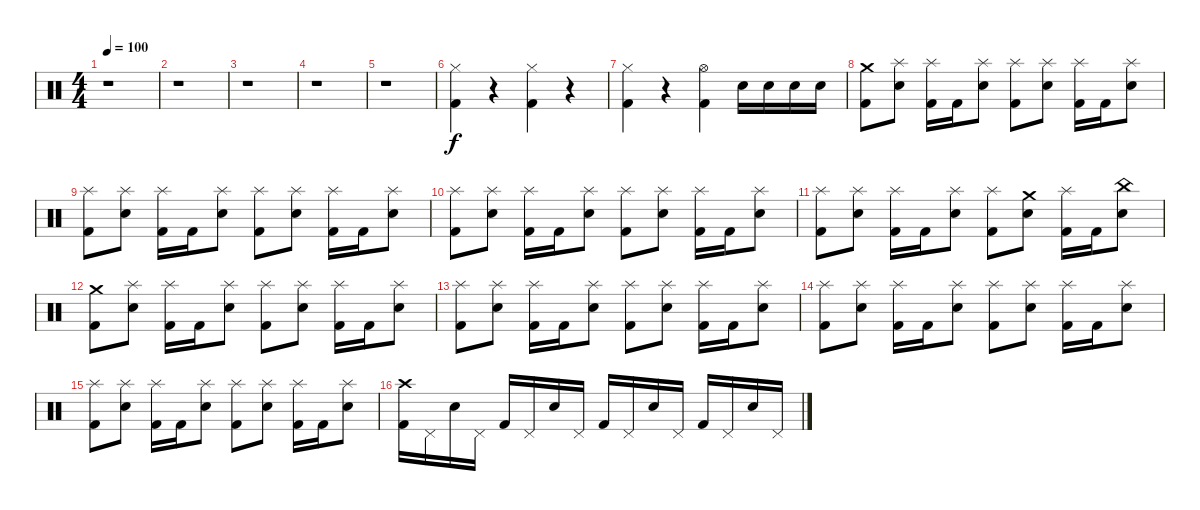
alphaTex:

\track "" {instrument percussion}
\staff {score}
\articulation defaults
\ts (4 4)
\tempo 100
\clef neutral
\ks c
r.1{dy f} |
r.1 |
r.1 |
r.1 |
r.1 |
("Hi-Hat (closed)" "Kick (hit) 2").4 r.4 ("Hi-Hat (closed)" "Kick (hit) 2").4 r.4 |
("Hi-Hat (closed)" "Kick (hit) 2").4 r.4 ("Hi-Hat (open)" "Kick (hit) 2").4 "Snare (hit) 2".16 "Snare (hit) 2".16 "Snare (hit) 2".16 "Snare (hit) 2".16 |
("Crash medium (hit)" "Kick (hit) 2").8 ("Splash (hit)" "Snare (hit) 2").8 ("Splash (hit)" "Kick (hit) 2").16 "Kick (hit) 2".16 ("Splash (hit)" "Snare (hit) 2").8 ("Splash (hit)" "Kick (hit) 2").8 ("Splash (hit)" "Snare (hit) 2").8 ("Splash (hit)" "Kick (hit) 2").16 "Kick (hit) 2".16 ("Splash (hit)" "Snare (hit) 2").8 |
("Splash (hit)" "Kick (hit) 2").8 ("Splash (hit)" "Snare (hit) 2").8 ("Splash (hit)" "Kick (hit) 2").16 "Kick (hit) 2".16 ("Splash (hit)" "Snare (hit) 2").8 ("Splash (hit)" "Kick (hit) 2").8 ("Splash (hit)" "Snare (hit) 2").8 ("Splash (hit)" "Kick (hit) 2").16 "Kick (hit) 2".16 ("Splash (hit)" "Snare (hit) 2").8 |
("Splash (hit)" "Kick (hit) 2").8 ("Splash (hit)" "Snare (hit) 2").8 ("Splash (hit)" "Kick (hit) 2").16 "Kick (hit) 2".16 ("Splash (hit)" "Snare (hit) 2").8 ("Splash (hit)" "Kick (hit) 2").8 ("Splash (hit)" "Snare (hit) 2").8 ("Splash (hit)" "Kick (hit) 2").16 "Kick (hit) 2".16 ("Splash (hit)" "Snare (hit) 2").8 |
("Splash (hit)" "Kick (hit) 2").8 ("Splash (hit)" "Snare (hit) 2").8 ("Splash (hit)" "Kick (hit) 2").16 "Kick (hit) 2".16 ("Splash (hit)" "Snare (hit) 2").8 ("Splash (hit)" "Kick (hit) 2").8 ("Crash medium (hit)" "Snare (hit) 2").8 ("Splash (hit)" "Kick (hit) 2").16 "Kick (hit) 2".16 ("China (hit)" "Snare (hit) 2").8 |
("Crash medium (hit)" "Kick (hit) 2").8 ("Splash (hit)" "Snare (hit) 2").8 ("Splash (hit)" "Kick (hit) 2").16 "Kick (hit) 2".16 ("Splash (hit)" "Snare (hit) 2").8 ("Splash (hit)" "Kick (hit) 2").8 ("Splash (hit)" "Snare (hit) 2").8 ("Splash (hit)" "Kick (hit) 2").16 "Kick (hit) 2".16 ("Splash (hit)" "Snare (hit) 2").8 |
("Splash (hit)" "Kick (hit) 2").8 ("Splash (hit)" "Snare (hit) 2").8 ("Splash (hit)" "Kick (hit) 2").16 "Kick (hit) 2".16 ("Splash (hit)" "Snare (hit) 2").8 ("Splash (hit)" "Kick (hit) 2").8 ("Splash (hit)" "Snare (hit) 2").8 ("Splash (hit)" "Kick (hit) 2").16 "Kick (hit) 2".16 ("Splash (hit)" "Snare (hit) 2").8 |
("Splash (hit)" "Kick (hit) 2").8 ("Splash (hit)" "Snare (hit) 2").8 ("Splash (hit)" "Kick (hit) 2").16 "Kick (hit) 2".16 ("Splash (hit)" "Snare (hit) 2").8 ("Splash (hit)" "Kick (hit) 2").8 ("Splash (hit)" "Snare (hit) 2").8 ("Splash (hit)" "Kick (hit) 2").16 "Kick (hit) 2".16 ("Splash (hit)" "Snare (hit) 2").8 |
("Splash (hit)" "Kick (hit) 2").8 ("Splash (hit)" "Snare (hit) 2").8 ("Splash (hit)" "Kick (hit) 2").16 "Kick (hit) 2".16 ("Splash (hit)" "Snare (hit) 2").8 ("Splash (hit)" "Kick (hit) 2").8 ("Splash (hit)" "Snare (hit) 2").8 ("Splash (hit)" "Kick (hit) 2").16 "Kick (hit) 2".16 ("Splash (hit)" "Snare (hit) 2").8 |
("Crash high (hit)" "Kick (hit) 2").16 "Pedal Hi-Hat (hit)".16 "Snare (hit) 2".16 "Pedal Hi-Hat (hit)".16 "Kick (hit) 2".16 "Pedal Hi-Hat (hit)".16 "Snare (hit) 2".16 "Pedal Hi-Hat (hit)".16 "Kick (hit) 2".16 "Pedal Hi-Hat (hit)".16 "Snare (hit) 2".16 "Pedal Hi-Hat (hit)".16 "Kick (hit) 2".16 "Pedal Hi-Hat (hit)".16 "Snare (hit) 2".16 "Pedal Hi-Hat (hit)".16
